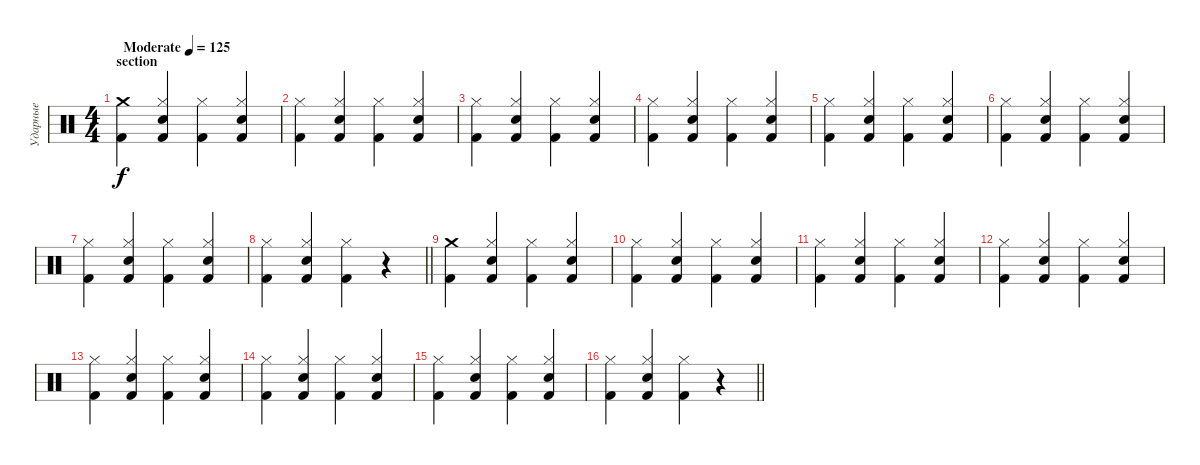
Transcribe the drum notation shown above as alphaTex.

\track ("Ударные" "Ударные") {instrument percussion}
\staff {score}
\articulation defaults
\ts (4 4)
\section ("" "section")
\tempo (125 "Moderate")
\clef neutral
\ks c
("Crash medium (hit)" "Kick (hit) 2").4{dy f} ("Hi-Hat (closed)" "Electric Snare (hit)" "Kick (hit) 2").4 ("Hi-Hat (closed)" "Kick (hit) 2").4 ("Hi-Hat (closed)" "Electric Snare (hit)" "Kick (hit) 2").4 |
("Hi-Hat (closed)" "Kick (hit) 2").4 ("Hi-Hat (closed)" "Electric Snare (hit)" "Kick (hit) 2").4 ("Hi-Hat (closed)" "Kick (hit) 2").4 ("Hi-Hat (closed)" "Electric Snare (hit)" "Kick (hit) 2").4 |
("Hi-Hat (closed)" "Kick (hit) 2").4 ("Hi-Hat (closed)" "Electric Snare (hit)" "Kick (hit) 2").4 ("Hi-Hat (closed)" "Kick (hit) 2").4 ("Hi-Hat (closed)" "Electric Snare (hit)" "Kick (hit) 2").4 |
("Hi-Hat (closed)" "Kick (hit) 2").4 ("Hi-Hat (closed)" "Electric Snare (hit)" "Kick (hit) 2").4 ("Hi-Hat (closed)" "Kick (hit) 2").4 ("Hi-Hat (closed)" "Electric Snare (hit)" "Kick (hit) 2").4 |
("Hi-Hat (closed)" "Kick (hit) 2").4 ("Hi-Hat (closed)" "Electric Snare (hit)" "Kick (hit) 2").4 ("Hi-Hat (closed)" "Kick (hit) 2").4 ("Hi-Hat (closed)" "Electric Snare (hit)" "Kick (hit) 2").4 |
("Hi-Hat (closed)" "Kick (hit) 2").4 ("Hi-Hat (closed)" "Electric Snare (hit)" "Kick (hit) 2").4 ("Hi-Hat (closed)" "Kick (hit) 2").4 ("Hi-Hat (closed)" "Electric Snare (hit)" "Kick (hit) 2").4 |
("Hi-Hat (closed)" "Kick (hit) 2").4 ("Hi-Hat (closed)" "Electric Snare (hit)" "Kick (hit) 2").4 ("Hi-Hat (closed)" "Kick (hit) 2").4 ("Hi-Hat (closed)" "Electric Snare (hit)" "Kick (hit) 2").4 |
\barLineRight lightlight
("Hi-Hat (closed)" "Kick (hit) 2").4 ("Hi-Hat (closed)" "Electric Snare (hit)" "Kick (hit) 2").4 ("Hi-Hat (closed)" "Kick (hit) 2").4 r.4 |
("Crash medium (hit)" "Kick (hit) 2").4 ("Hi-Hat (closed)" "Electric Snare (hit)" "Kick (hit) 2").4 ("Hi-Hat (closed)" "Kick (hit) 2").4 ("Hi-Hat (closed)" "Electric Snare (hit)" "Kick (hit) 2").4 |
("Hi-Hat (closed)" "Kick (hit) 2").4 ("Hi-Hat (closed)" "Electric Snare (hit)" "Kick (hit) 2").4 ("Hi-Hat (closed)" "Kick (hit) 2").4 ("Hi-Hat (closed)" "Electric Snare (hit)" "Kick (hit) 2").4 |
("Hi-Hat (closed)" "Kick (hit) 2").4 ("Hi-Hat (closed)" "Electric Snare (hit)" "Kick (hit) 2").4 ("Hi-Hat (closed)" "Kick (hit) 2").4 ("Hi-Hat (closed)" "Electric Snare (hit)" "Kick (hit) 2").4 |
("Hi-Hat (closed)" "Kick (hit) 2").4 ("Hi-Hat (closed)" "Electric Snare (hit)" "Kick (hit) 2").4 ("Hi-Hat (closed)" "Kick (hit) 2").4 ("Hi-Hat (closed)" "Electric Snare (hit)" "Kick (hit) 2").4 |
("Hi-Hat (closed)" "Kick (hit) 2").4 ("Hi-Hat (closed)" "Electric Snare (hit)" "Kick (hit) 2").4 ("Hi-Hat (closed)" "Kick (hit) 2").4 ("Hi-Hat (closed)" "Electric Snare (hit)" "Kick (hit) 2").4 |
("Hi-Hat (closed)" "Kick (hit) 2").4 ("Hi-Hat (closed)" "Electric Snare (hit)" "Kick (hit) 2").4 ("Hi-Hat (closed)" "Kick (hit) 2").4 ("Hi-Hat (closed)" "Electric Snare (hit)" "Kick (hit) 2").4 |
("Hi-Hat (closed)" "Kick (hit) 2").4 ("Hi-Hat (closed)" "Electric Snare (hit)" "Kick (hit) 2").4 ("Hi-Hat (closed)" "Kick (hit) 2").4 ("Hi-Hat (closed)" "Electric Snare (hit)" "Kick (hit) 2").4 |
\barLineRight lightlight
("Hi-Hat (closed)" "Kick (hit) 2").4 ("Hi-Hat (closed)" "Electric Snare (hit)" "Kick (hit) 2").4 ("Hi-Hat (closed)" "Kick (hit) 2").4 r.4
